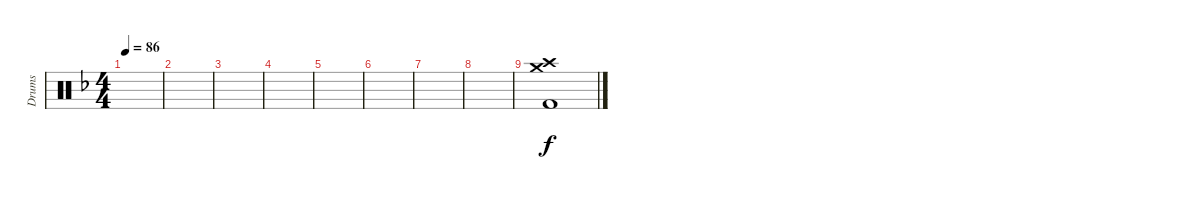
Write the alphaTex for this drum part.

\track ("Drums" "Drums") {instrument percussion}
\staff {score}
\articulation defaults
\ts (4 4)
\tempo 86
\clef neutral
\ks dminor
|
|
|
|
|
|
|
|
("Crash high (hit)" "Crash medium (hit)" "Kick (hit) 2").1
